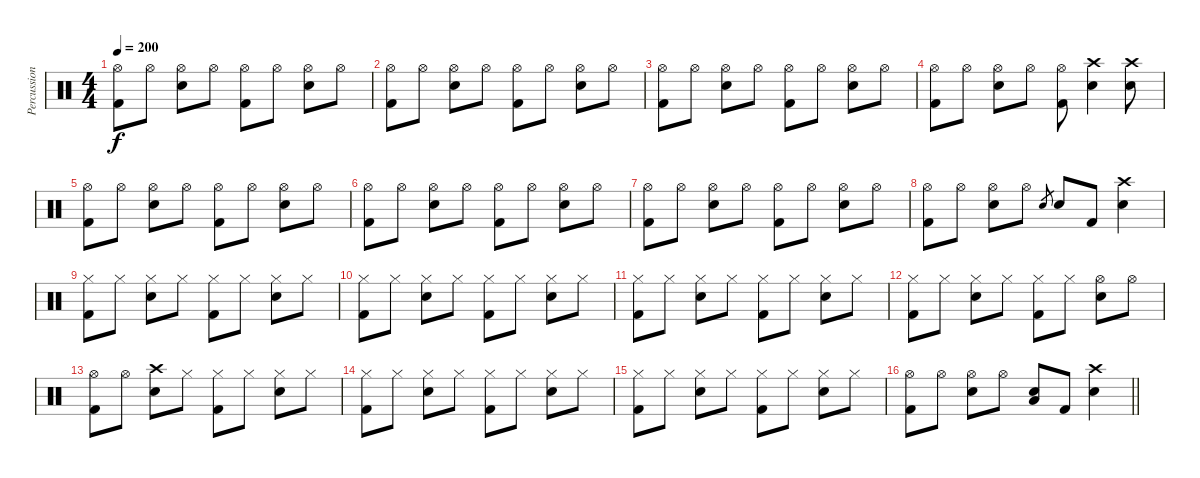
\track ("Percussion" "Percussion") {instrument percussion}
\staff {score}
\articulation defaults
\ts (4 4)
\tempo 200
\clef neutral
\ks c
("Hi-Hat (open)" "Kick (hit) 2").8{dy f} "Hi-Hat (open)".8 ("Hi-Hat (open)" "Electric Snare (hit)").8 "Hi-Hat (open)".8 ("Hi-Hat (open)" "Kick (hit) 2").8 "Hi-Hat (open)".8 ("Hi-Hat (open)" "Electric Snare (hit)").8 "Hi-Hat (open)".8 |
("Hi-Hat (open)" "Kick (hit) 2").8 "Hi-Hat (open)".8 ("Hi-Hat (open)" "Electric Snare (hit)").8 "Hi-Hat (open)".8 ("Hi-Hat (open)" "Kick (hit) 2").8 "Hi-Hat (open)".8 ("Hi-Hat (open)" "Electric Snare (hit)").8 "Hi-Hat (open)".8 |
("Hi-Hat (open)" "Kick (hit) 2").8 "Hi-Hat (open)".8 ("Hi-Hat (open)" "Electric Snare (hit)").8 "Hi-Hat (open)".8 ("Hi-Hat (open)" "Kick (hit) 2").8 "Hi-Hat (open)".8 ("Hi-Hat (open)" "Electric Snare (hit)").8 "Hi-Hat (open)".8 |
("Hi-Hat (open)" "Kick (hit) 2").8 "Hi-Hat (open)".8 ("Hi-Hat (open)" "Electric Snare (hit)").8 "Hi-Hat (open)".8 ("Hi-Hat (open)" "Kick (hit) 2").8 ("Crash high (hit)" "Electric Snare (hit)").4 ("Crash high (hit)" "Electric Snare (hit)").8 |
("Hi-Hat (open)" "Kick (hit) 2").8 "Hi-Hat (open)".8 ("Hi-Hat (open)" "Electric Snare (hit)").8 "Hi-Hat (open)".8 ("Hi-Hat (open)" "Kick (hit) 2").8 "Hi-Hat (open)".8 ("Hi-Hat (open)" "Electric Snare (hit)").8 "Hi-Hat (open)".8 |
("Hi-Hat (open)" "Kick (hit) 2").8 "Hi-Hat (open)".8 ("Hi-Hat (open)" "Electric Snare (hit)").8 "Hi-Hat (open)".8 ("Hi-Hat (open)" "Kick (hit) 2").8 "Hi-Hat (open)".8 ("Hi-Hat (open)" "Electric Snare (hit)").8 "Hi-Hat (open)".8 |
("Hi-Hat (open)" "Kick (hit) 2").8 "Hi-Hat (open)".8 ("Hi-Hat (open)" "Electric Snare (hit)").8 "Hi-Hat (open)".8 ("Hi-Hat (open)" "Kick (hit) 2").8 "Hi-Hat (open)".8 ("Hi-Hat (open)" "Electric Snare (hit)").8 "Hi-Hat (open)".8 |
("Hi-Hat (open)" "Kick (hit) 2").8 "Hi-Hat (open)".8 ("Hi-Hat (open)" "Electric Snare (hit)").8 "Hi-Hat (open)".8 "Electric Snare (hit)".8{gr} "Electric Snare (hit)".8 "Kick (hit) 2".8 ("Crash high (hit)" "Electric Snare (hit)").4 |
("Hi-Hat (closed)" "Kick (hit) 2").8 "Hi-Hat (closed)".8 ("Hi-Hat (closed)" "Electric Snare (hit)").8 "Hi-Hat (closed)".8 ("Hi-Hat (closed)" "Kick (hit) 2").8 "Hi-Hat (closed)".8 ("Hi-Hat (closed)" "Electric Snare (hit)").8 "Hi-Hat (closed)".8 |
("Hi-Hat (closed)" "Kick (hit) 2").8 "Hi-Hat (closed)".8 ("Hi-Hat (closed)" "Electric Snare (hit)").8 "Hi-Hat (closed)".8 ("Hi-Hat (closed)" "Kick (hit) 2").8 "Hi-Hat (closed)".8 ("Hi-Hat (closed)" "Electric Snare (hit)").8 "Hi-Hat (closed)".8 |
("Hi-Hat (closed)" "Kick (hit) 2").8 "Hi-Hat (closed)".8 ("Hi-Hat (closed)" "Electric Snare (hit)").8 "Hi-Hat (closed)".8 ("Hi-Hat (closed)" "Kick (hit) 2").8 "Hi-Hat (closed)".8 ("Hi-Hat (closed)" "Electric Snare (hit)").8 "Hi-Hat (closed)".8 |
("Hi-Hat (closed)" "Kick (hit) 2").8 "Hi-Hat (closed)".8 ("Hi-Hat (closed)" "Electric Snare (hit)").8 "Hi-Hat (closed)".8 ("Hi-Hat (closed)" "Kick (hit) 2").8 "Hi-Hat (closed)".8 ("Hi-Hat (open)" "Electric Snare (hit)").8 "Hi-Hat (open)".8 |
("Hi-Hat (open)" "Kick (hit) 2").8 "Hi-Hat (open)".8 ("Crash high (hit)" "Electric Snare (hit)").8 "Hi-Hat (closed)".8 ("Hi-Hat (closed)" "Kick (hit) 2").8 "Hi-Hat (closed)".8 ("Hi-Hat (closed)" "Electric Snare (hit)").8 "Hi-Hat (closed)".8 |
("Hi-Hat (closed)" "Kick (hit) 2").8 "Hi-Hat (closed)".8 ("Hi-Hat (closed)" "Electric Snare (hit)").8 "Hi-Hat (closed)".8 ("Hi-Hat (closed)" "Kick (hit) 2").8 "Hi-Hat (closed)".8 ("Hi-Hat (closed)" "Electric Snare (hit)").8 "Hi-Hat (closed)".8 |
("Hi-Hat (closed)" "Kick (hit) 2").8 "Hi-Hat (closed)".8 ("Hi-Hat (closed)" "Electric Snare (hit)").8 "Hi-Hat (closed)".8 ("Hi-Hat (closed)" "Kick (hit) 2").8 "Hi-Hat (closed)".8 ("Hi-Hat (closed)" "Electric Snare (hit)").8 "Hi-Hat (closed)".8 |
\barLineRight lightlight
("Hi-Hat (open)" "Kick (hit) 2").8 "Hi-Hat (open)".8 ("Hi-Hat (open)" "Electric Snare (hit)").8 "Hi-Hat (open)".8 ("Electric Snare (hit)" "Low Floor Tom (hit)").8 "Kick (hit) 2".8 ("Crash high (hit)" "Electric Snare (hit)").4
